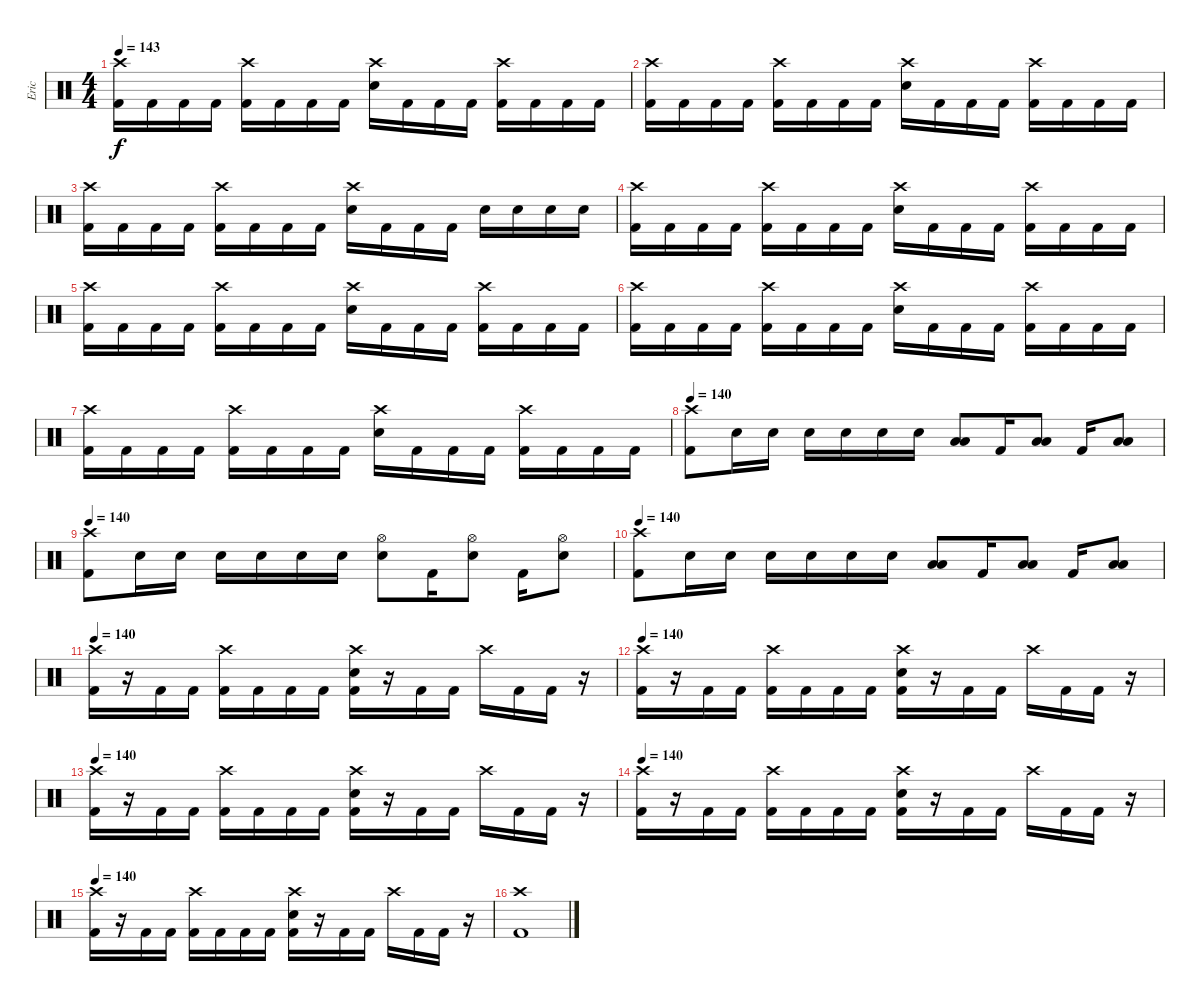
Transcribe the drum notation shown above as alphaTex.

\track ("Eric" "Eric") {instrument percussion}
\staff {score}
\articulation defaults
\ts (4 4)
\tempo 143
\clef neutral
\ks c
("Crash high (hit)" "Kick (hit) 2").16{dy f} "Kick (hit) 2".16 "Kick (hit) 2".16 "Kick (hit) 2".16 ("Crash high (hit)" "Kick (hit) 2").16 "Kick (hit) 2".16 "Kick (hit) 2".16 "Kick (hit) 2".16 ("Crash high (hit)" "Electric Snare (hit)").16 "Kick (hit) 2".16 "Kick (hit) 2".16 "Kick (hit) 2".16 ("Crash high (hit)" "Kick (hit) 2").16 "Kick (hit) 2".16 "Kick (hit) 2".16 "Kick (hit) 2".16 |
("Crash high (hit)" "Kick (hit) 2").16 "Kick (hit) 2".16 "Kick (hit) 2".16 "Kick (hit) 2".16 ("Crash high (hit)" "Kick (hit) 2").16 "Kick (hit) 2".16 "Kick (hit) 2".16 "Kick (hit) 2".16 ("Crash high (hit)" "Electric Snare (hit)").16 "Kick (hit) 2".16 "Kick (hit) 2".16 "Kick (hit) 2".16 ("Crash high (hit)" "Kick (hit) 2").16 "Kick (hit) 2".16 "Kick (hit) 2".16 "Kick (hit) 2".16 |
("Crash high (hit)" "Kick (hit) 2").16 "Kick (hit) 2".16 "Kick (hit) 2".16 "Kick (hit) 2".16 ("Crash high (hit)" "Kick (hit) 2").16 "Kick (hit) 2".16 "Kick (hit) 2".16 "Kick (hit) 2".16 ("Crash high (hit)" "Electric Snare (hit)").16 "Kick (hit) 2".16 "Kick (hit) 2".16 "Kick (hit) 2".16 "Electric Snare (hit)".16 "Electric Snare (hit)".16 "Electric Snare (hit)".16 "Electric Snare (hit)".16 |
("Crash high (hit)" "Kick (hit) 2").16 "Kick (hit) 2".16 "Kick (hit) 2".16 "Kick (hit) 2".16 ("Crash high (hit)" "Kick (hit) 2").16 "Kick (hit) 2".16 "Kick (hit) 2".16 "Kick (hit) 2".16 ("Crash high (hit)" "Electric Snare (hit)").16 "Kick (hit) 2".16 "Kick (hit) 2".16 "Kick (hit) 2".16 ("Crash high (hit)" "Kick (hit) 2").16 "Kick (hit) 2".16 "Kick (hit) 2".16 "Kick (hit) 2".16 |
("Crash high (hit)" "Kick (hit) 2").16 "Kick (hit) 2".16 "Kick (hit) 2".16 "Kick (hit) 2".16 ("Crash high (hit)" "Kick (hit) 2").16 "Kick (hit) 2".16 "Kick (hit) 2".16 "Kick (hit) 2".16 ("Crash high (hit)" "Electric Snare (hit)").16 "Kick (hit) 2".16 "Kick (hit) 2".16 "Kick (hit) 2".16 ("Crash high (hit)" "Kick (hit) 2").16 "Kick (hit) 2".16 "Kick (hit) 2".16 "Kick (hit) 2".16 |
("Crash high (hit)" "Kick (hit) 2").16 "Kick (hit) 2".16 "Kick (hit) 2".16 "Kick (hit) 2".16 ("Crash high (hit)" "Kick (hit) 2").16 "Kick (hit) 2".16 "Kick (hit) 2".16 "Kick (hit) 2".16 ("Crash high (hit)" "Electric Snare (hit)").16 "Kick (hit) 2".16 "Kick (hit) 2".16 "Kick (hit) 2".16 ("Crash high (hit)" "Kick (hit) 2").16 "Kick (hit) 2".16 "Kick (hit) 2".16 "Kick (hit) 2".16 |
("Crash high (hit)" "Kick (hit) 2").16 "Kick (hit) 2".16 "Kick (hit) 2".16 "Kick (hit) 2".16 ("Crash high (hit)" "Kick (hit) 2").16 "Kick (hit) 2".16 "Kick (hit) 2".16 "Kick (hit) 2".16 ("Crash high (hit)" "Electric Snare (hit)").16 "Kick (hit) 2".16 "Kick (hit) 2".16 "Kick (hit) 2".16 ("Crash high (hit)" "Kick (hit) 2").16 "Kick (hit) 2".16 "Kick (hit) 2".16 "Kick (hit) 2".16 |
\tempo 140
("Crash high (hit)" "Kick (hit) 2").8 "Electric Snare (hit)".16 "Electric Snare (hit)".16 "Electric Snare (hit)".16 "Electric Snare (hit)".16 "Electric Snare (hit)".16 "Electric Snare (hit)".16 ("Low Tom (hit)" "Low Floor Tom (hit)").8 "Kick (hit) 2".16 ("Low Floor Tom (hit)" "Low Tom (hit)").8 "Kick (hit) 2".16 ("Low Floor Tom (hit)" "Low Tom (hit)").8 |
\tempo 140
("Crash high (hit)" "Kick (hit) 2").8 "Electric Snare (hit)".16 "Electric Snare (hit)".16 "Electric Snare (hit)".16 "Electric Snare (hit)".16 "Electric Snare (hit)".16 "Electric Snare (hit)".16 ("Hi-Hat (open)" "Electric Snare (hit)").8 "Kick (hit) 2".16 ("Hi-Hat (open)" "Electric Snare (hit)").8 "Kick (hit) 2".16 ("Hi-Hat (open)" "Electric Snare (hit)").8 |
\tempo 140
("Crash high (hit)" "Kick (hit) 2").8 "Electric Snare (hit)".16 "Electric Snare (hit)".16 "Electric Snare (hit)".16 "Electric Snare (hit)".16 "Electric Snare (hit)".16 "Electric Snare (hit)".16 ("Low Tom (hit)" "Low Floor Tom (hit)").8 "Kick (hit) 2".16 ("Low Floor Tom (hit)" "Low Tom (hit)").8 "Kick (hit) 2".16 ("Low Floor Tom (hit)" "Low Tom (hit)").8 |
\tempo 140
("Crash high (hit)" "Kick (hit) 2").16 r.16 "Kick (hit) 2".16 "Kick (hit) 2".16 ("Crash high (hit)" "Kick (hit) 2").16 "Kick (hit) 2".16 "Kick (hit) 2".16 "Kick (hit) 2".16 ("Crash high (hit)" "Electric Snare (hit)" "Kick (hit) 2").16 r.16 "Kick (hit) 2".16 "Kick (hit) 2".16 "Crash high (hit)".16 "Kick (hit) 2".16 "Kick (hit) 2".16 r.16 |
\tempo 140
("Crash high (hit)" "Kick (hit) 2").16 r.16 "Kick (hit) 2".16 "Kick (hit) 2".16 ("Crash high (hit)" "Kick (hit) 2").16 "Kick (hit) 2".16 "Kick (hit) 2".16 "Kick (hit) 2".16 ("Crash high (hit)" "Electric Snare (hit)" "Kick (hit) 2").16 r.16 "Kick (hit) 2".16 "Kick (hit) 2".16 "Crash high (hit)".16 "Kick (hit) 2".16 "Kick (hit) 2".16 r.16 |
\tempo 140
("Crash high (hit)" "Kick (hit) 2").16 r.16 "Kick (hit) 2".16 "Kick (hit) 2".16 ("Crash high (hit)" "Kick (hit) 2").16 "Kick (hit) 2".16 "Kick (hit) 2".16 "Kick (hit) 2".16 ("Crash high (hit)" "Electric Snare (hit)" "Kick (hit) 2").16 r.16 "Kick (hit) 2".16 "Kick (hit) 2".16 "Crash high (hit)".16 "Kick (hit) 2".16 "Kick (hit) 2".16 r.16 |
\tempo 140
("Crash high (hit)" "Kick (hit) 2").16 r.16 "Kick (hit) 2".16 "Kick (hit) 2".16 ("Crash high (hit)" "Kick (hit) 2").16 "Kick (hit) 2".16 "Kick (hit) 2".16 "Kick (hit) 2".16 ("Crash high (hit)" "Electric Snare (hit)" "Kick (hit) 2").16 r.16 "Kick (hit) 2".16 "Kick (hit) 2".16 "Crash high (hit)".16 "Kick (hit) 2".16 "Kick (hit) 2".16 r.16 |
\tempo 140
("Crash high (hit)" "Kick (hit) 2").16 r.16 "Kick (hit) 2".16 "Kick (hit) 2".16 ("Crash high (hit)" "Kick (hit) 2").16 "Kick (hit) 2".16 "Kick (hit) 2".16 "Kick (hit) 2".16 ("Crash high (hit)" "Electric Snare (hit)" "Kick (hit) 2").16 r.16 "Kick (hit) 2".16 "Kick (hit) 2".16 "Crash high (hit)".16 "Kick (hit) 2".16 "Kick (hit) 2".16 r.16 |
("Crash high (hit)" "Kick (hit) 2").1
